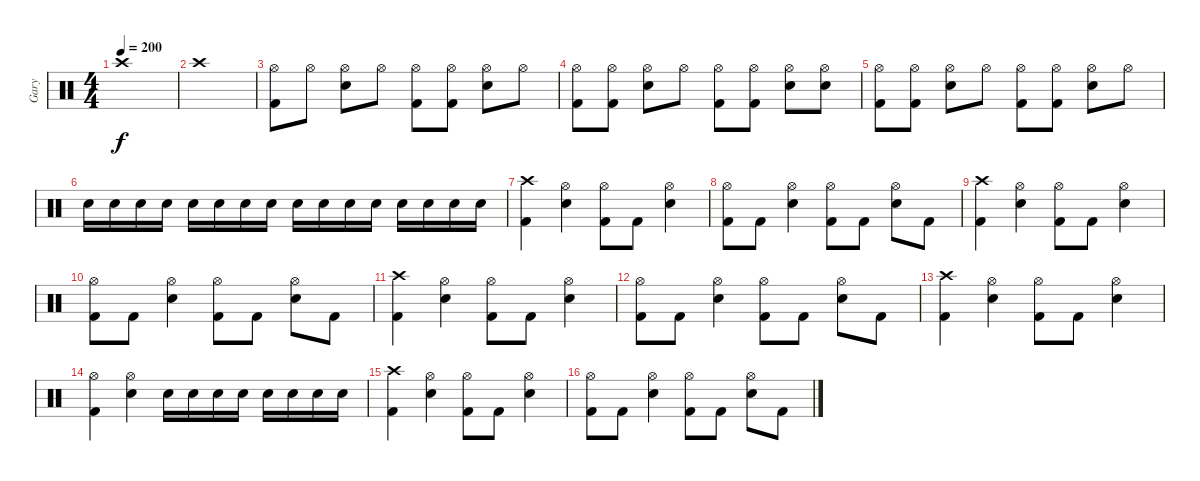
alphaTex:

\track ("Gary" "Gary") {instrument percussion}
\staff {score}
\articulation defaults
\ts (4 4)
\tempo 200
\clef neutral
\ks c "Crash high (hit)".1{dy f}
|
"Crash high (hit)".1 |
("Hi-Hat (open)" "Kick (hit) 2").8 "Hi-Hat (open)".8 ("Hi-Hat (open)" "Electric Snare (hit)").8 "Hi-Hat (open)".8 ("Hi-Hat (open)" "Kick (hit) 2").8 ("Hi-Hat (open)" "Kick (hit) 2").8 ("Hi-Hat (open)" "Electric Snare (hit)").8 "Hi-Hat (open)".8 |
("Hi-Hat (open)" "Kick (hit) 2").8 ("Hi-Hat (open)" "Kick (hit) 2").8 ("Hi-Hat (open)" "Electric Snare (hit)").8 "Hi-Hat (open)".8 ("Hi-Hat (open)" "Kick (hit) 2").8 ("Hi-Hat (open)" "Kick (hit) 2").8 ("Hi-Hat (open)" "Electric Snare (hit)").8 ("Hi-Hat (open)" "Electric Snare (hit)").8 |
("Hi-Hat (open)" "Kick (hit) 2").8 ("Hi-Hat (open)" "Kick (hit) 2").8 ("Hi-Hat (open)" "Electric Snare (hit)").8 "Hi-Hat (open)".8 ("Hi-Hat (open)" "Kick (hit) 2").8 ("Hi-Hat (open)" "Kick (hit) 2").8 ("Hi-Hat (open)" "Electric Snare (hit)").8 "Hi-Hat (open)".8 |
"Electric Snare (hit)".16 "Electric Snare (hit)".16 "Electric Snare (hit)".16 "Electric Snare (hit)".16 "Electric Snare (hit)".16 "Electric Snare (hit)".16 "Electric Snare (hit)".16 "Electric Snare (hit)".16 "Electric Snare (hit)".16 "Electric Snare (hit)".16 "Electric Snare (hit)".16 "Electric Snare (hit)".16 "Electric Snare (hit)".16 "Electric Snare (hit)".16 "Electric Snare (hit)".16 "Electric Snare (hit)".16 |
("Crash high (hit)" "Kick (hit) 2").4 ("Hi-Hat (open)" "Electric Snare (hit)").4 ("Hi-Hat (open)" "Kick (hit) 2").8 "Kick (hit) 2".8 ("Hi-Hat (open)" "Electric Snare (hit)").4 |
("Hi-Hat (open)" "Kick (hit) 2").8 "Kick (hit) 2".8 ("Hi-Hat (open)" "Electric Snare (hit)").4 ("Hi-Hat (open)" "Kick (hit) 2").8 "Kick (hit) 2".8 ("Hi-Hat (open)" "Electric Snare (hit)").8 "Kick (hit) 2".8 |
("Crash high (hit)" "Kick (hit) 2").4 ("Hi-Hat (open)" "Electric Snare (hit)").4 ("Hi-Hat (open)" "Kick (hit) 2").8 "Kick (hit) 2".8 ("Hi-Hat (open)" "Electric Snare (hit)").4 |
("Hi-Hat (open)" "Kick (hit) 2").8 "Kick (hit) 2".8 ("Hi-Hat (open)" "Electric Snare (hit)").4 ("Hi-Hat (open)" "Kick (hit) 2").8 "Kick (hit) 2".8 ("Hi-Hat (open)" "Electric Snare (hit)").8 "Kick (hit) 2".8 |
("Crash high (hit)" "Kick (hit) 2").4 ("Hi-Hat (open)" "Electric Snare (hit)").4 ("Hi-Hat (open)" "Kick (hit) 2").8 "Kick (hit) 2".8 ("Hi-Hat (open)" "Electric Snare (hit)").4 |
("Hi-Hat (open)" "Kick (hit) 2").8 "Kick (hit) 2".8 ("Hi-Hat (open)" "Electric Snare (hit)").4 ("Hi-Hat (open)" "Kick (hit) 2").8 "Kick (hit) 2".8 ("Hi-Hat (open)" "Electric Snare (hit)").8 "Kick (hit) 2".8 |
("Crash high (hit)" "Kick (hit) 2").4 ("Hi-Hat (open)" "Electric Snare (hit)").4 ("Hi-Hat (open)" "Kick (hit) 2").8 "Kick (hit) 2".8 ("Hi-Hat (open)" "Electric Snare (hit)").4 |
("Hi-Hat (open)" "Kick (hit) 2").4 ("Hi-Hat (open)" "Electric Snare (hit)").4 "Electric Snare (hit)".16 "Electric Snare (hit)".16 "Electric Snare (hit)".16 "Electric Snare (hit)".16 "Electric Snare (hit)".16 "Electric Snare (hit)".16 "Electric Snare (hit)".16 "Electric Snare (hit)".16 |
("Crash high (hit)" "Kick (hit) 2").4 ("Hi-Hat (open)" "Electric Snare (hit)").4 ("Hi-Hat (open)" "Kick (hit) 2").8 "Kick (hit) 2".8 ("Hi-Hat (open)" "Electric Snare (hit)").4 |
("Hi-Hat (open)" "Kick (hit) 2").8 "Kick (hit) 2".8 ("Hi-Hat (open)" "Electric Snare (hit)").4 ("Hi-Hat (open)" "Kick (hit) 2").8 "Kick (hit) 2".8 ("Hi-Hat (open)" "Electric Snare (hit)").8 "Kick (hit) 2".8
